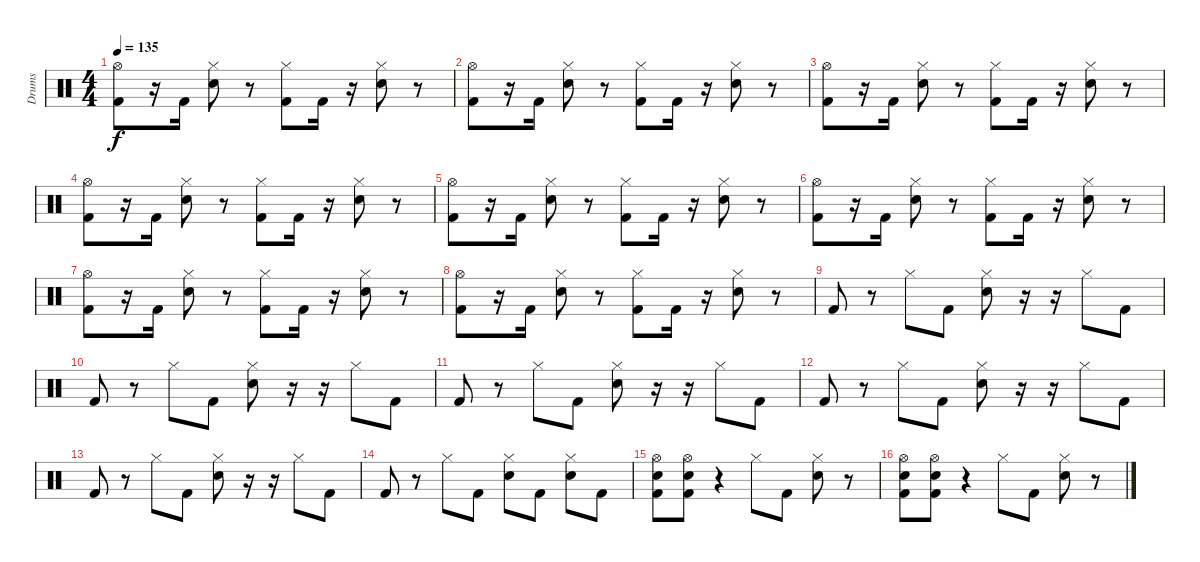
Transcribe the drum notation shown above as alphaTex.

\track ("Drums" "Drums") {instrument percussion}
\staff {score}
\articulation defaults
\ts (4 4)
\tempo 135
\clef neutral
\ks c
("Hi-Hat (open)" "Kick (hit) 2").8{dy f} r.16 "Kick (hit) 2".16 ("Hi-Hat (closed)" "Snare (hit) 2").8 r.8 ("Hi-Hat (closed)" "Kick (hit) 2").8 "Kick (hit) 2".16 r.16 ("Hi-Hat (closed)" "Snare (hit) 2").8 r.8 |
("Hi-Hat (open)" "Kick (hit) 2").8 r.16 "Kick (hit) 2".16 ("Hi-Hat (closed)" "Snare (hit) 2").8 r.8 ("Hi-Hat (closed)" "Kick (hit) 2").8 "Kick (hit) 2".16 r.16 ("Hi-Hat (closed)" "Snare (hit) 2").8 r.8 |
("Hi-Hat (open)" "Kick (hit) 2").8 r.16 "Kick (hit) 2".16 ("Hi-Hat (closed)" "Snare (hit) 2").8 r.8 ("Hi-Hat (closed)" "Kick (hit) 2").8 "Kick (hit) 2".16 r.16 ("Hi-Hat (closed)" "Snare (hit) 2").8 r.8 |
("Hi-Hat (open)" "Kick (hit) 2").8 r.16 "Kick (hit) 2".16 ("Hi-Hat (closed)" "Snare (hit) 2").8 r.8 ("Hi-Hat (closed)" "Kick (hit) 2").8 "Kick (hit) 2".16 r.16 ("Hi-Hat (closed)" "Snare (hit) 2").8 r.8 |
("Hi-Hat (open)" "Kick (hit) 2").8 r.16 "Kick (hit) 2".16 ("Hi-Hat (closed)" "Snare (hit) 2").8 r.8 ("Hi-Hat (closed)" "Kick (hit) 2").8 "Kick (hit) 2".16 r.16 ("Hi-Hat (closed)" "Snare (hit) 2").8 r.8 |
("Hi-Hat (open)" "Kick (hit) 2").8 r.16 "Kick (hit) 2".16 ("Hi-Hat (closed)" "Snare (hit) 2").8 r.8 ("Hi-Hat (closed)" "Kick (hit) 2").8 "Kick (hit) 2".16 r.16 ("Hi-Hat (closed)" "Snare (hit) 2").8 r.8 |
("Hi-Hat (open)" "Kick (hit) 2").8 r.16 "Kick (hit) 2".16 ("Hi-Hat (closed)" "Snare (hit) 2").8 r.8 ("Hi-Hat (closed)" "Kick (hit) 2").8 "Kick (hit) 2".16 r.16 ("Hi-Hat (closed)" "Snare (hit) 2").8 r.8 |
("Hi-Hat (open)" "Kick (hit) 2").8 r.16 "Kick (hit) 2".16 ("Hi-Hat (closed)" "Snare (hit) 2").8 r.8 ("Hi-Hat (closed)" "Kick (hit) 2").8 "Kick (hit) 2".16 r.16 ("Hi-Hat (closed)" "Snare (hit) 2").8 r.8 |
"Kick (hit) 2".8 r.8 "Hi-Hat (closed)".8 "Kick (hit) 2".8 ("Hi-Hat (closed)" "Snare (hit) 2").8 r.16 r.16 "Hi-Hat (closed)".8 "Kick (hit) 2".8 |
"Kick (hit) 2".8 r.8 "Hi-Hat (closed)".8 "Kick (hit) 2".8 ("Hi-Hat (closed)" "Snare (hit) 2").8 r.16 r.16 "Hi-Hat (closed)".8 "Kick (hit) 2".8 |
"Kick (hit) 2".8 r.8 "Hi-Hat (closed)".8 "Kick (hit) 2".8 ("Hi-Hat (closed)" "Snare (hit) 2").8 r.16 r.16 "Hi-Hat (closed)".8 "Kick (hit) 2".8 |
"Kick (hit) 2".8 r.8 "Hi-Hat (closed)".8 "Kick (hit) 2".8 ("Hi-Hat (closed)" "Snare (hit) 2").8 r.16 r.16 "Hi-Hat (closed)".8 "Kick (hit) 2".8 |
"Kick (hit) 2".8 r.8 "Hi-Hat (closed)".8 "Kick (hit) 2".8 ("Hi-Hat (closed)" "Snare (hit) 2").8 r.16 r.16 "Hi-Hat (closed)".8 "Kick (hit) 2".8 |
"Kick (hit) 2".8 r.8 "Hi-Hat (closed)".8 "Kick (hit) 2".8 ("Hi-Hat (closed)" "Snare (hit) 2").8 "Kick (hit) 2".8 ("Hi-Hat (closed)" "Snare (hit) 2").8 "Kick (hit) 2".8 |
("Hi-Hat (open)" "Snare (hit) 2" "Kick (hit) 2").8 ("Hi-Hat (open)" "Snare (hit) 2" "Kick (hit) 2").8 r.4 "Hi-Hat (closed)".8 "Kick (hit) 2".8 ("Hi-Hat (closed)" "Snare (hit) 2").8 r.8 |
("Hi-Hat (open)" "Snare (hit) 2" "Kick (hit) 2").8 ("Hi-Hat (open)" "Snare (hit) 2" "Kick (hit) 2").8 r.4 "Hi-Hat (closed)".8 "Kick (hit) 2".8 ("Hi-Hat (closed)" "Snare (hit) 2").8 r.8
